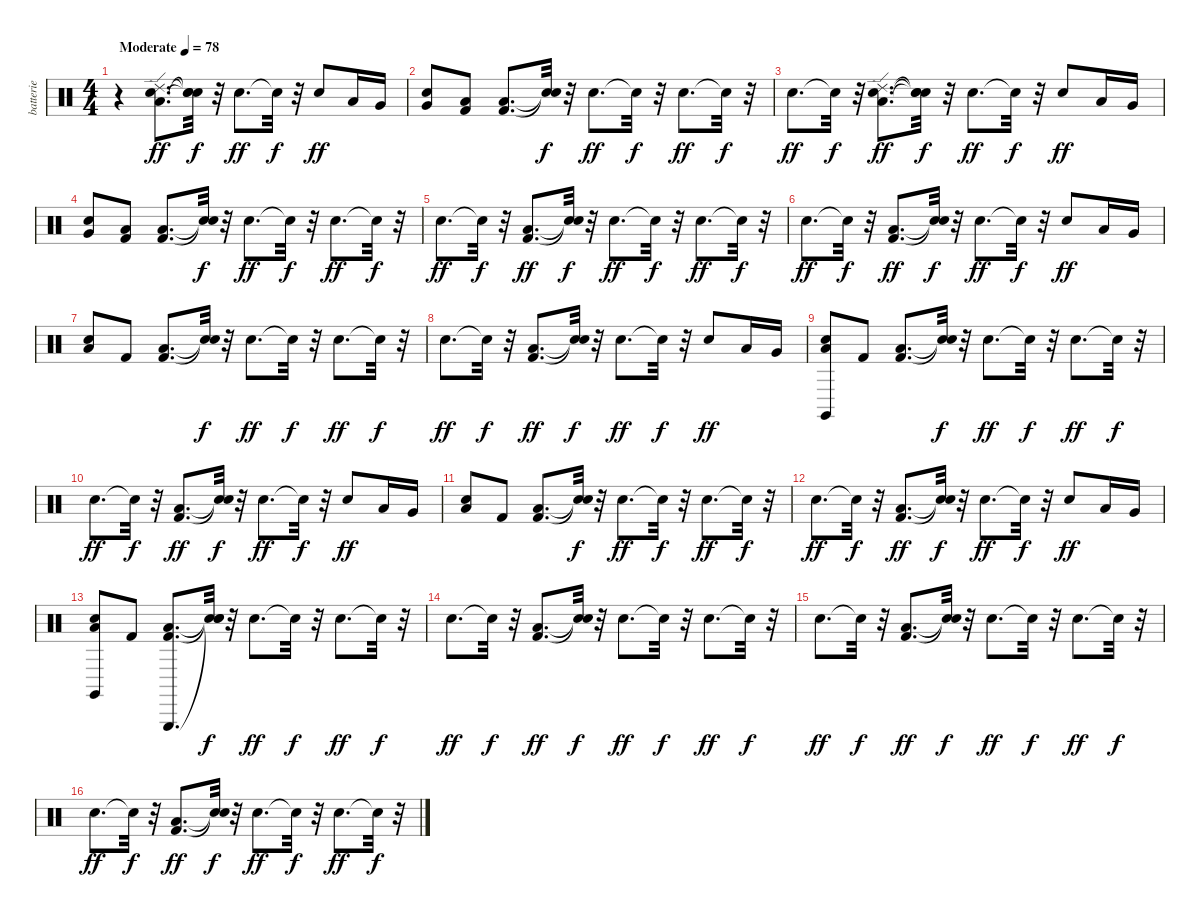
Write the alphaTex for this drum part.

\track ("batterie" "batterie") {instrument percussion}
\staff {score}
\articulation defaults
\ts (4 4)
\tempo (78 "Moderate")
\clef neutral
\ks c
r.4{dy ff} ("Hand Clap (hit)" "Low Tom (hit)" "Ride (edge) 2").8{d} ("Snare (hit)"{t} "Snare (hit)"{t} "Snare (hit)"{t}).32{dy f} r.32 "Hand Clap (hit)".8{d dy ff} "Snare (hit)"{t}.32{dy f} r.32 "Hand Clap (hit)".8{dy ff} "Low Tom (hit)".16 "Very Low Tom (hit)".16 |
("Hand Clap (hit)" "Very Low Tom (hit)").8 ("Kick (hit) 2" "Low Floor Tom (hit)").8 ("Kick (hit) 2" "Low Floor Tom (hit)").8{d} ("Snare (hit)"{t} "Snare (hit)"{t}).32{dy f} r.32 "Hand Clap (hit)".8{d dy ff} "Snare (hit)"{t}.32{dy f} r.32 "Hand Clap (hit)".8{d dy ff} "Snare (hit)"{t}.32{dy f} r.32 |
"Hand Clap (hit)".8{d dy ff} "Snare (hit)"{t}.32{dy f} r.32 ("Hand Clap (hit)" "Low Tom (hit)" "Ride (edge) 2").8{d dy ff} ("Snare (hit)"{t} "Snare (hit)"{t} "Snare (hit)"{t}).32{dy f} r.32 "Hand Clap (hit)".8{d dy ff} "Snare (hit)"{t}.32{dy f} r.32 "Hand Clap (hit)".8{dy ff} "Low Tom (hit)".16 "Very Low Tom (hit)".16 |
("Hand Clap (hit)" "Very Low Tom (hit)").8 ("Kick (hit) 2" "Low Floor Tom (hit)").8 ("Kick (hit) 2" "Low Floor Tom (hit)").8{d} ("Snare (hit)"{t} "Snare (hit)"{t}).32{dy f} r.32 "Hand Clap (hit)".8{d dy ff} "Snare (hit)"{t}.32{dy f} r.32 "Hand Clap (hit)".8{d dy ff} "Snare (hit)"{t}.32{dy f} r.32 |
"Hand Clap (hit)".8{d dy ff} "Snare (hit)"{t}.32{dy f} r.32 ("Kick (hit) 2" "Low Floor Tom (hit)").8{d dy ff} ("Snare (hit)"{t} "Snare (hit)"{t}).32{dy f} r.32 "Hand Clap (hit)".8{d dy ff} "Snare (hit)"{t}.32{dy f} r.32 "Hand Clap (hit)".8{d dy ff} "Snare (hit)"{t}.32{dy f} r.32 |
"Hand Clap (hit)".8{d dy ff} "Snare (hit)"{t}.32{dy f} r.32 ("Kick (hit) 2" "Low Floor Tom (hit)").8{d dy ff} ("Snare (hit)"{t} "Snare (hit)"{t}).32{dy f} r.32 "Hand Clap (hit)".8{d dy ff} "Snare (hit)"{t}.32{dy f} r.32 "Hand Clap (hit)".8{dy ff} "Low Tom (hit)".16 "Very Low Tom (hit)".16 |
("Hand Clap (hit)" "Low Floor Tom (hit)").8 "Kick (hit) 2".8 ("Kick (hit) 2" "Low Floor Tom (hit)").8{d} ("Snare (hit)"{t} "Snare (hit)"{t}).32{dy f} r.32 "Hand Clap (hit)".8{d dy ff} "Snare (hit)"{t}.32{dy f} r.32 "Hand Clap (hit)".8{d dy ff} "Snare (hit)"{t}.32{dy f} r.32 |
"Hand Clap (hit)".8{d dy ff} "Snare (hit)"{t}.32{dy f} r.32 ("Kick (hit) 2" "Low Floor Tom (hit)").8{d dy ff} ("Snare (hit)"{t} "Snare (hit)"{t}).32{dy f} r.32 "Hand Clap (hit)".8{d dy ff} "Snare (hit)"{t}.32{dy f} r.32 "Hand Clap (hit)".8{dy ff} "Low Tom (hit)".16 "Very Low Tom (hit)".16 |
("Hand Clap (hit)" "Low Floor Tom (hit)" "Claves (hit)").8 "Kick (hit) 2".8 ("Kick (hit) 2" "Low Floor Tom (hit)").8{d} ("Snare (hit)"{t} "Snare (hit)"{t}).32{dy f} r.32 "Hand Clap (hit)".8{d dy ff} "Snare (hit)"{t}.32{dy f} r.32 "Hand Clap (hit)".8{d dy ff} "Snare (hit)"{t}.32{dy f} r.32 |
"Hand Clap (hit)".8{d dy ff} "Snare (hit)"{t}.32{dy f} r.32 ("Kick (hit) 2" "Low Floor Tom (hit)").8{d dy ff} ("Snare (hit)"{t} "Snare (hit)"{t}).32{dy f} r.32 "Hand Clap (hit)".8{d dy ff} "Snare (hit)"{t}.32{dy f} r.32 "Hand Clap (hit)".8{dy ff} "Low Tom (hit)".16 "Very Low Tom (hit)".16 |
("Hand Clap (hit)" "Low Floor Tom (hit)").8 "Kick (hit) 2".8 ("Kick (hit) 2" "Low Floor Tom (hit)").8{d} ("Snare (hit)"{t} "Snare (hit)"{t}).32{dy f} r.32 "Hand Clap (hit)".8{d dy ff} "Snare (hit)"{t}.32{dy f} r.32 "Hand Clap (hit)".8{d dy ff} "Snare (hit)"{t}.32{dy f} r.32 |
"Hand Clap (hit)".8{d dy ff} "Snare (hit)"{t}.32{dy f} r.32 ("Kick (hit) 2" "Low Floor Tom (hit)").8{d dy ff} ("Snare (hit)"{t} "Snare (hit)"{t}).32{dy f} r.32 "Hand Clap (hit)".8{d dy ff} "Snare (hit)"{t}.32{dy f} r.32 "Hand Clap (hit)".8{dy ff} "Low Tom (hit)".16 "Very Low Tom (hit)".16 |
("Hand Clap (hit)" "Low Floor Tom (hit)" "Claves (hit)").8 "Kick (hit) 2".8 ("Kick (hit) 2" "Low Floor Tom (hit)" "Triangle (hit)").8{d} ("Snare (hit)"{t} "Snare (hit)"{t} "Snare (hit)"{t}).32{dy f} r.32 "Hand Clap (hit)".8{d dy ff} "Snare (hit)"{t}.32{dy f} r.32 "Hand Clap (hit)".8{d dy ff} "Snare (hit)"{t}.32{dy f} r.32 |
"Hand Clap (hit)".8{d dy ff} "Snare (hit)"{t}.32{dy f} r.32 ("Kick (hit) 2" "Low Floor Tom (hit)").8{d dy ff} ("Snare (hit)"{t} "Snare (hit)"{t}).32{dy f} r.32 "Hand Clap (hit)".8{d dy ff} "Snare (hit)"{t}.32{dy f} r.32 "Hand Clap (hit)".8{d dy ff} "Snare (hit)"{t}.32{dy f} r.32 |
"Hand Clap (hit)".8{d dy ff} "Snare (hit)"{t}.32{dy f} r.32 ("Kick (hit) 2" "Low Floor Tom (hit)").8{d dy ff} ("Snare (hit)"{t} "Snare (hit)"{t}).32{dy f} r.32 "Hand Clap (hit)".8{d dy ff} "Snare (hit)"{t}.32{dy f} r.32 "Hand Clap (hit)".8{d dy ff} "Snare (hit)"{t}.32{dy f} r.32 |
"Hand Clap (hit)".8{d dy ff} "Snare (hit)"{t}.32{dy f} r.32 ("Kick (hit) 2" "Low Floor Tom (hit)").8{d dy ff} ("Snare (hit)"{t} "Snare (hit)"{t}).32{dy f} r.32 "Hand Clap (hit)".8{d dy ff} "Snare (hit)"{t}.32{dy f} r.32 "Hand Clap (hit)".8{d dy ff} "Snare (hit)"{t}.32{dy f} r.32
